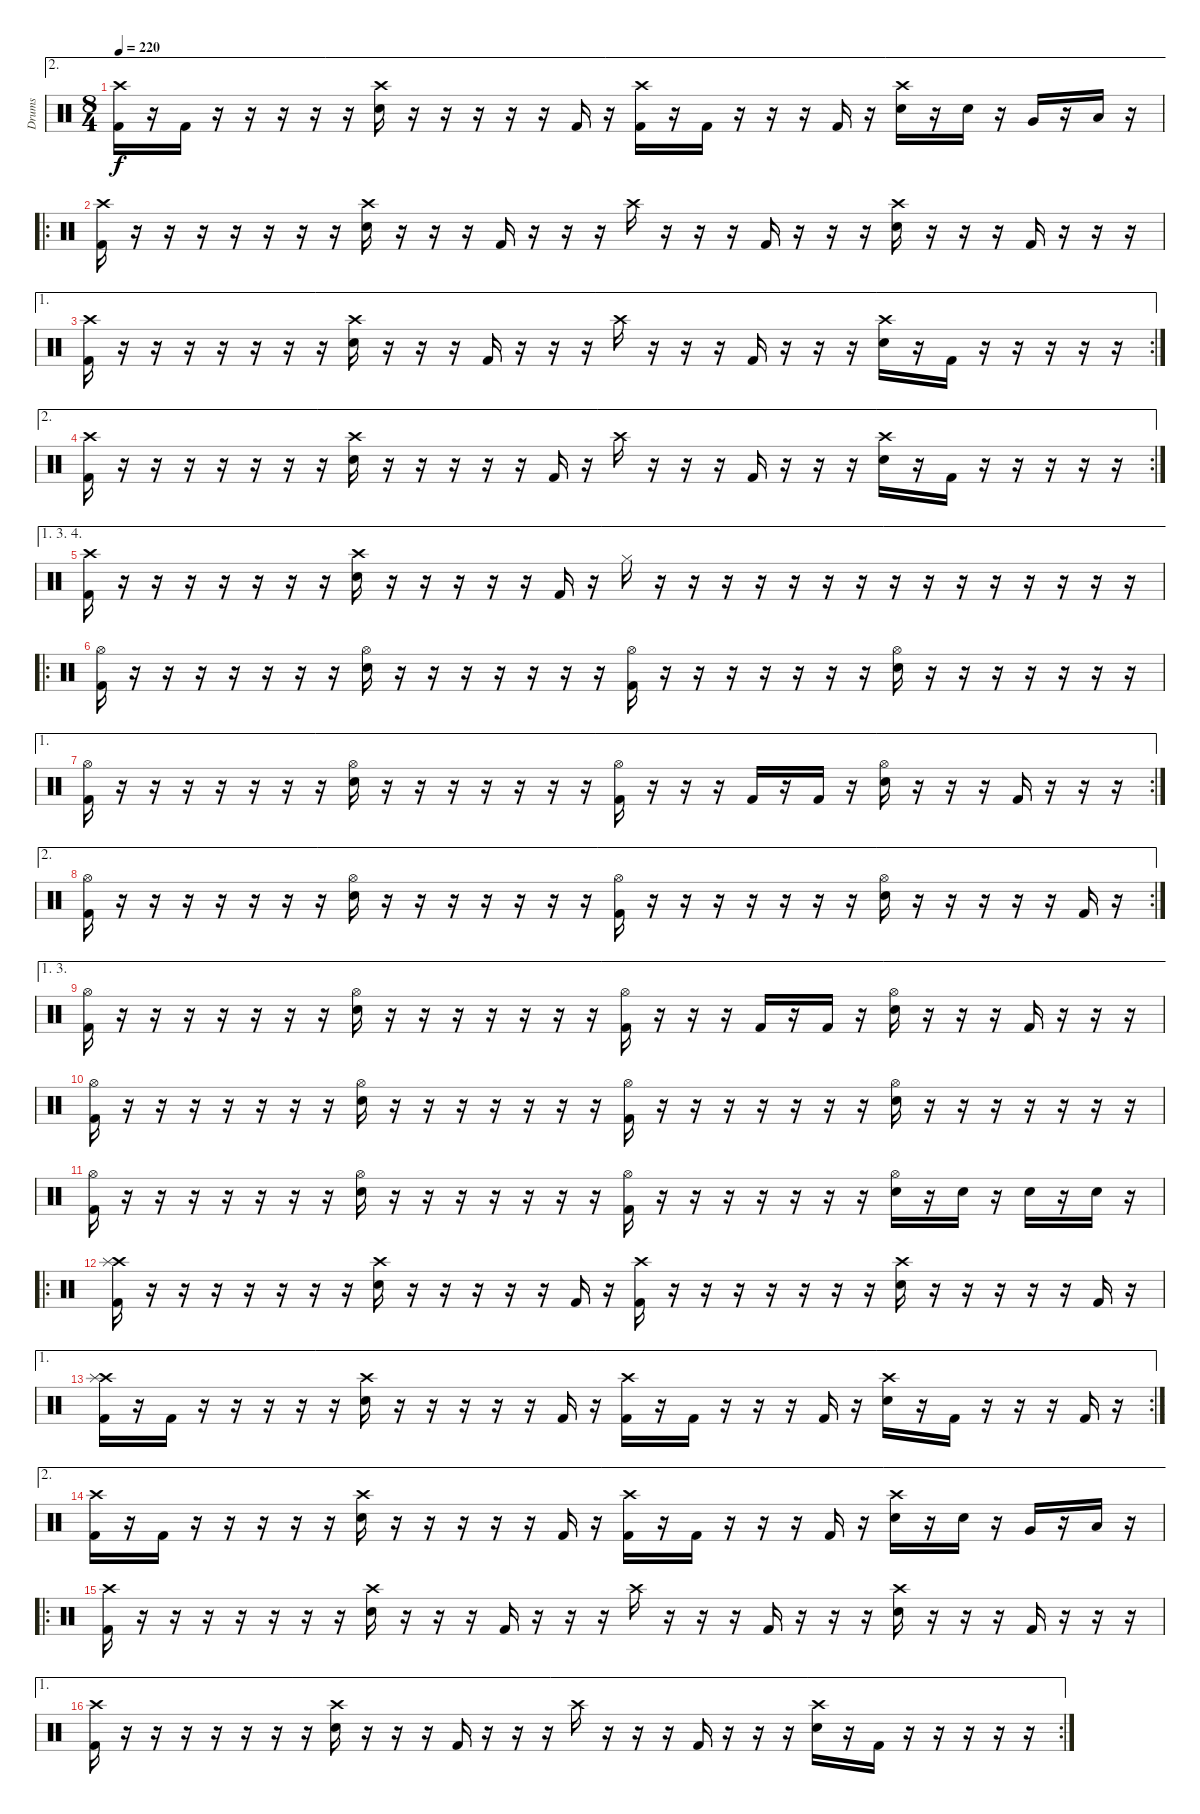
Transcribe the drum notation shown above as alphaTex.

\track ("Drums" "Drums") {instrument percussion}
\staff {score}
\articulation defaults
\ae 2
\ts (8 4)
\tempo 220
\clef neutral
\ks c
("Crash high (hit)" "Kick (hit) 2").16{dy f} r.16 "Kick (hit) 2".16 r.16 r.16 r.16 r.16 r.16 ("Crash high (hit)" "Snare (hit) 2").16 r.16 r.16 r.16 r.16 r.16 "Kick (hit) 2".16 r.16 ("Crash high (hit)" "Kick (hit) 2").16 r.16 "Kick (hit) 2".16 r.16 r.16 r.16 "Kick (hit) 2".16 r.16 ("Crash high (hit)" "Snare (hit) 2").16 r.16 "Snare (hit) 2".16 r.16 "Very Low Tom (hit)".16 r.16 "Low Floor Tom (hit)".16 r.16 |
\ro
("Crash high (hit)" "Kick (hit) 2").16 r.16 r.16 r.16 r.16 r.16 r.16 r.16 ("Crash high (hit)" "Snare (hit) 2").16 r.16 r.16 r.16 "Kick (hit) 2".16 r.16 r.16 r.16 "Crash high (hit)".16 r.16 r.16 r.16 "Kick (hit) 2".16 r.16 r.16 r.16 ("Crash high (hit)" "Snare (hit) 2").16 r.16 r.16 r.16 "Kick (hit) 2".16 r.16 r.16 r.16 |
\ae 1
\rc 2
("Crash high (hit)" "Kick (hit) 2").16 r.16 r.16 r.16 r.16 r.16 r.16 r.16 ("Crash high (hit)" "Snare (hit) 2").16 r.16 r.16 r.16 "Kick (hit) 2".16 r.16 r.16 r.16 "Crash high (hit)".16 r.16 r.16 r.16 "Kick (hit) 2".16 r.16 r.16 r.16 ("Crash high (hit)" "Snare (hit) 2").16 r.16 "Kick (hit) 2".16 r.16 r.16 r.16 r.16 r.16 |
\ae 2
\rc 2
("Crash high (hit)" "Kick (hit) 2").16 r.16 r.16 r.16 r.16 r.16 r.16 r.16 ("Crash high (hit)" "Snare (hit) 2").16 r.16 r.16 r.16 r.16 r.16 "Kick (hit) 2".16 r.16 "Crash high (hit)".16 r.16 r.16 r.16 "Kick (hit) 2".16 r.16 r.16 r.16 ("Crash high (hit)" "Snare (hit) 2").16 r.16 "Kick (hit) 2".16 r.16 r.16 r.16 r.16 r.16 |
\ae (1 3 4)
("Crash high (hit)" "Kick (hit) 2").16 r.16 r.16 r.16 r.16 r.16 r.16 r.16 ("Crash high (hit)" "Snare (hit) 2").16 r.16 r.16 r.16 r.16 r.16 "Kick (hit) 2".16 r.16 "Hi-Hat (closed)".16 r.16 r.16 r.16 r.16 r.16 r.16 r.16 r.16 r.16 r.16 r.16 r.16 r.16 r.16 r.16 |
\ro
("Hi-Hat (open)" "Kick (hit) 2").16 r.16 r.16 r.16 r.16 r.16 r.16 r.16 ("Hi-Hat (open)" "Snare (hit) 2").16 r.16 r.16 r.16 r.16 r.16 r.16 r.16 ("Hi-Hat (open)" "Kick (hit) 2").16 r.16 r.16 r.16 r.16 r.16 r.16 r.16 ("Hi-Hat (open)" "Snare (hit) 2").16 r.16 r.16 r.16 r.16 r.16 r.16 r.16 |
\ae 1
\rc 2
("Hi-Hat (open)" "Kick (hit) 2").16 r.16 r.16 r.16 r.16 r.16 r.16 r.16 ("Hi-Hat (open)" "Snare (hit) 2").16 r.16 r.16 r.16 r.16 r.16 r.16 r.16 ("Hi-Hat (open)" "Kick (hit) 2").16 r.16 r.16 r.16 "Kick (hit) 2".16 r.16 "Kick (hit) 2".16 r.16 ("Hi-Hat (open)" "Snare (hit) 2").16 r.16 r.16 r.16 "Kick (hit) 2".16 r.16 r.16 r.16 |
\ae 2
\rc 2
("Hi-Hat (open)" "Kick (hit) 2").16 r.16 r.16 r.16 r.16 r.16 r.16 r.16 ("Hi-Hat (open)" "Snare (hit) 2").16 r.16 r.16 r.16 r.16 r.16 r.16 r.16 ("Hi-Hat (open)" "Kick (hit) 2").16 r.16 r.16 r.16 r.16 r.16 r.16 r.16 ("Hi-Hat (open)" "Snare (hit) 2").16 r.16 r.16 r.16 r.16 r.16 "Kick (hit) 2".16 r.16 |
\ae (1 3)
("Hi-Hat (open)" "Kick (hit) 2").16 r.16 r.16 r.16 r.16 r.16 r.16 r.16 ("Hi-Hat (open)" "Snare (hit) 2").16 r.16 r.16 r.16 r.16 r.16 r.16 r.16 ("Hi-Hat (open)" "Kick (hit) 2").16 r.16 r.16 r.16 "Kick (hit) 2".16 r.16 "Kick (hit) 2".16 r.16 ("Hi-Hat (open)" "Snare (hit) 2").16 r.16 r.16 r.16 "Kick (hit) 2".16 r.16 r.16 r.16 |
("Hi-Hat (open)" "Kick (hit) 2").16 r.16 r.16 r.16 r.16 r.16 r.16 r.16 ("Hi-Hat (open)" "Snare (hit) 2").16 r.16 r.16 r.16 r.16 r.16 r.16 r.16 ("Hi-Hat (open)" "Kick (hit) 2").16 r.16 r.16 r.16 r.16 r.16 r.16 r.16 ("Hi-Hat (open)" "Snare (hit) 2").16 r.16 r.16 r.16 r.16 r.16 r.16 r.16 |
("Hi-Hat (open)" "Kick (hit) 2").16 r.16 r.16 r.16 r.16 r.16 r.16 r.16 ("Hi-Hat (open)" "Snare (hit) 2").16 r.16 r.16 r.16 r.16 r.16 r.16 r.16 ("Hi-Hat (open)" "Kick (hit) 2").16 r.16 r.16 r.16 r.16 r.16 r.16 r.16 ("Hi-Hat (open)" "Snare (hit) 2").16 r.16 "Snare (hit) 2".16 r.16 "Snare (hit) 2".16 r.16 "Snare (hit) 2".16 r.16 |
\ro
("Crash high (hit)" "Splash (hit)" "Kick (hit) 2").16 r.16 r.16 r.16 r.16 r.16 r.16 r.16 ("Crash high (hit)" "Snare (hit) 2").16 r.16 r.16 r.16 r.16 r.16 "Kick (hit) 2".16 r.16 ("Crash high (hit)" "Kick (hit) 2").16 r.16 r.16 r.16 r.16 r.16 r.16 r.16 ("Crash high (hit)" "Snare (hit) 2").16 r.16 r.16 r.16 r.16 r.16 "Kick (hit) 2".16 r.16 |
\ae 1
\rc 2
("Crash high (hit)" "Splash (hit)" "Kick (hit) 2").16 r.16 "Kick (hit) 2".16 r.16 r.16 r.16 r.16 r.16 ("Crash high (hit)" "Snare (hit) 2").16 r.16 r.16 r.16 r.16 r.16 "Kick (hit) 2".16 r.16 ("Crash high (hit)" "Kick (hit) 2").16 r.16 "Kick (hit) 2".16 r.16 r.16 r.16 "Kick (hit) 2".16 r.16 ("Crash high (hit)" "Snare (hit) 2").16 r.16 "Kick (hit) 2".16 r.16 r.16 r.16 "Kick (hit) 2".16 r.16 |
\ae 2
("Crash high (hit)" "Kick (hit) 2").16 r.16 "Kick (hit) 2".16 r.16 r.16 r.16 r.16 r.16 ("Crash high (hit)" "Snare (hit) 2").16 r.16 r.16 r.16 r.16 r.16 "Kick (hit) 2".16 r.16 ("Crash high (hit)" "Kick (hit) 2").16 r.16 "Kick (hit) 2".16 r.16 r.16 r.16 "Kick (hit) 2".16 r.16 ("Crash high (hit)" "Snare (hit) 2").16 r.16 "Snare (hit) 2".16 r.16 "Very Low Tom (hit)".16 r.16 "Low Floor Tom (hit)".16 r.16 |
\ro
("Crash high (hit)" "Kick (hit) 2").16 r.16 r.16 r.16 r.16 r.16 r.16 r.16 ("Crash high (hit)" "Snare (hit) 2").16 r.16 r.16 r.16 "Kick (hit) 2".16 r.16 r.16 r.16 "Crash high (hit)".16 r.16 r.16 r.16 "Kick (hit) 2".16 r.16 r.16 r.16 ("Crash high (hit)" "Snare (hit) 2").16 r.16 r.16 r.16 "Kick (hit) 2".16 r.16 r.16 r.16 |
\ae 1
\rc 2
("Crash high (hit)" "Kick (hit) 2").16 r.16 r.16 r.16 r.16 r.16 r.16 r.16 ("Crash high (hit)" "Snare (hit) 2").16 r.16 r.16 r.16 "Kick (hit) 2".16 r.16 r.16 r.16 "Crash high (hit)".16 r.16 r.16 r.16 "Kick (hit) 2".16 r.16 r.16 r.16 ("Crash high (hit)" "Snare (hit) 2").16 r.16 "Kick (hit) 2".16 r.16 r.16 r.16 r.16 r.16
